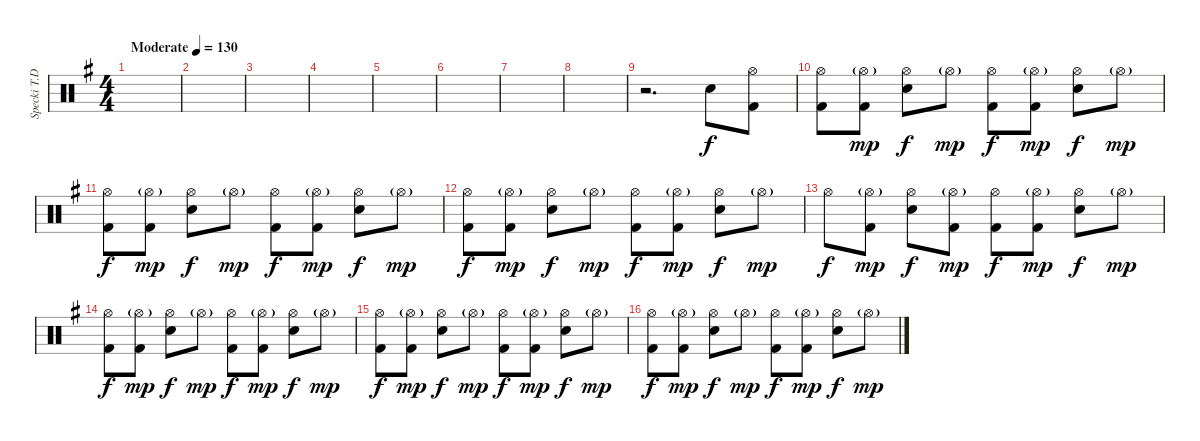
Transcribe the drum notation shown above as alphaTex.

\track ("Specki T.D. (Drums)" "Specki T.D") {instrument percussion}
\staff {score}
\articulation defaults
\ts (4 4)
\tempo (130 "Moderate")
\clef neutral
\ks g
|
|
|
|
|
|
|
|
r.2{d} "Snare (hit) 2".8 ("Hi-Hat (open)" "Kick (hit) 2").8 |
\ks eminor
("Hi-Hat (open)" "Kick (hit) 2").8 ("Hi-Hat (open)"{g} "Kick (hit) 2").8{dy mp} ("Hi-Hat (open)" "Snare (hit) 2").8{dy f} "Hi-Hat (open)"{g}.8{dy mp} ("Hi-Hat (open)" "Kick (hit) 2").8{dy f} ("Hi-Hat (open)"{g} "Kick (hit) 2").8{dy mp} ("Hi-Hat (open)" "Snare (hit) 2").8{dy f} "Hi-Hat (open)"{g}.8{dy mp} |
("Hi-Hat (open)" "Kick (hit) 2").8{dy f} ("Hi-Hat (open)"{g} "Kick (hit) 2").8{dy mp} ("Hi-Hat (open)" "Snare (hit) 2").8{dy f} "Hi-Hat (open)"{g}.8{dy mp} ("Hi-Hat (open)" "Kick (hit) 2").8{dy f} ("Hi-Hat (open)"{g} "Kick (hit) 2").8{dy mp} ("Hi-Hat (open)" "Snare (hit) 2").8{dy f} "Hi-Hat (open)"{g}.8{dy mp} |
("Hi-Hat (open)" "Kick (hit) 2").8{dy f} ("Hi-Hat (open)"{g} "Kick (hit) 2").8{dy mp} ("Hi-Hat (open)" "Snare (hit) 2").8{dy f} "Hi-Hat (open)"{g}.8{dy mp} ("Hi-Hat (open)" "Kick (hit) 2").8{dy f} ("Hi-Hat (open)"{g} "Kick (hit) 2").8{dy mp} ("Hi-Hat (open)" "Snare (hit) 2").8{dy f} "Hi-Hat (open)"{g}.8{dy mp} |
"Hi-Hat (open)".8{dy f} ("Hi-Hat (open)"{g} "Kick (hit) 2").8{dy mp} ("Hi-Hat (open)" "Snare (hit) 2").8{dy f} ("Hi-Hat (open)"{g} "Kick (hit) 2").8{dy mp} ("Hi-Hat (open)" "Kick (hit) 2").8{dy f} ("Hi-Hat (open)"{g} "Kick (hit) 2").8{dy mp} ("Hi-Hat (open)" "Snare (hit) 2").8{dy f} "Hi-Hat (open)"{g}.8{dy mp} |
("Hi-Hat (open)" "Kick (hit) 2").8{dy f} ("Hi-Hat (open)"{g} "Kick (hit) 2").8{dy mp} ("Hi-Hat (open)" "Snare (hit) 2").8{dy f} "Hi-Hat (open)"{g}.8{dy mp} ("Hi-Hat (open)" "Kick (hit) 2").8{dy f} ("Hi-Hat (open)"{g} "Kick (hit) 2").8{dy mp} ("Hi-Hat (open)" "Snare (hit) 2").8{dy f} "Hi-Hat (open)"{g}.8{dy mp} |
("Hi-Hat (open)" "Kick (hit) 2").8{dy f} ("Hi-Hat (open)"{g} "Kick (hit) 2").8{dy mp} ("Hi-Hat (open)" "Snare (hit) 2").8{dy f} "Hi-Hat (open)"{g}.8{dy mp} ("Hi-Hat (open)" "Kick (hit) 2").8{dy f} ("Hi-Hat (open)"{g} "Kick (hit) 2").8{dy mp} ("Hi-Hat (open)" "Snare (hit) 2").8{dy f} "Hi-Hat (open)"{g}.8{dy mp} |
("Hi-Hat (open)" "Kick (hit) 2").8{dy f} ("Hi-Hat (open)"{g} "Kick (hit) 2").8{dy mp} ("Hi-Hat (open)" "Snare (hit) 2").8{dy f} "Hi-Hat (open)"{g}.8{dy mp} ("Hi-Hat (open)" "Kick (hit) 2").8{dy f} ("Hi-Hat (open)"{g} "Kick (hit) 2").8{dy mp} ("Hi-Hat (open)" "Snare (hit) 2").8{dy f} "Hi-Hat (open)"{g}.8{dy mp}
